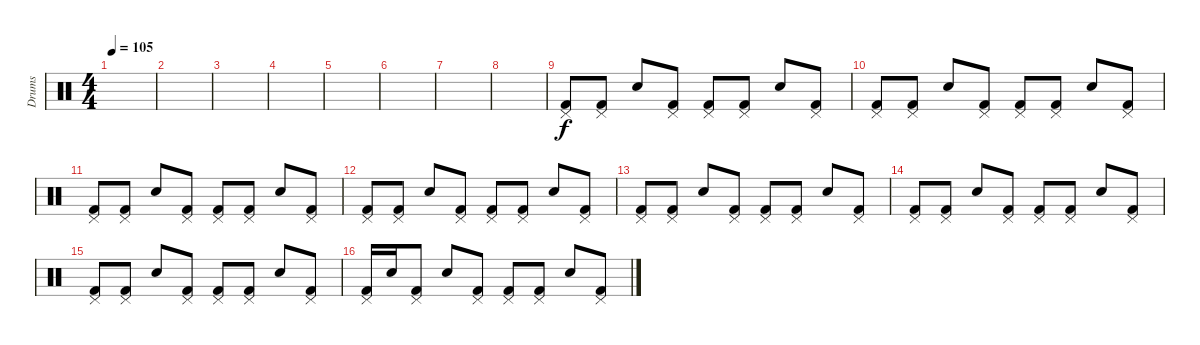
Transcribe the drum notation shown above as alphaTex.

\track ("Drums" "Drums") {instrument percussion}
\staff {score}
\articulation defaults
\ts (4 4)
\tempo 105
\clef neutral
\ks c
|
|
|
|
|
|
|
|
("Kick (hit) 2" "Pedal Hi-Hat (hit)").8{volume 2} ("Kick (hit) 2" "Pedal Hi-Hat (hit)").8 "Snare (hit) 2".8 ("Kick (hit) 2" "Pedal Hi-Hat (hit)").8 ("Kick (hit) 2" "Pedal Hi-Hat (hit)").8{volume 3} ("Kick (hit) 2" "Pedal Hi-Hat (hit)").8 "Snare (hit) 2".8 ("Kick (hit) 2" "Pedal Hi-Hat (hit)").8 |
("Kick (hit) 2" "Pedal Hi-Hat (hit)").8{volume 5} ("Kick (hit) 2" "Pedal Hi-Hat (hit)").8 "Snare (hit) 2".8 ("Kick (hit) 2" "Pedal Hi-Hat (hit)").8 ("Kick (hit) 2" "Pedal Hi-Hat (hit)").8{volume 7} ("Kick (hit) 2" "Pedal Hi-Hat (hit)").8 "Snare (hit) 2".8 ("Kick (hit) 2" "Pedal Hi-Hat (hit)").8 |
("Kick (hit) 2" "Pedal Hi-Hat (hit)").8{volume 9} ("Kick (hit) 2" "Pedal Hi-Hat (hit)").8 "Snare (hit) 2".8 ("Kick (hit) 2" "Pedal Hi-Hat (hit)").8 ("Kick (hit) 2" "Pedal Hi-Hat (hit)").8{volume 11} ("Kick (hit) 2" "Pedal Hi-Hat (hit)").8 "Snare (hit) 2".8 ("Kick (hit) 2" "Pedal Hi-Hat (hit)").8 |
("Kick (hit) 2" "Pedal Hi-Hat (hit)").8{volume 12} ("Kick (hit) 2" "Pedal Hi-Hat (hit)").8 "Snare (hit) 2".8 ("Kick (hit) 2" "Pedal Hi-Hat (hit)").8 ("Kick (hit) 2" "Pedal Hi-Hat (hit)").8 ("Kick (hit) 2" "Pedal Hi-Hat (hit)").8 "Snare (hit) 2".8 ("Kick (hit) 2" "Pedal Hi-Hat (hit)").8 |
("Kick (hit) 2" "Pedal Hi-Hat (hit)").8 ("Kick (hit) 2" "Pedal Hi-Hat (hit)").8 "Snare (hit) 2".8 ("Kick (hit) 2" "Pedal Hi-Hat (hit)").8 ("Kick (hit) 2" "Pedal Hi-Hat (hit)").8 ("Kick (hit) 2" "Pedal Hi-Hat (hit)").8 "Snare (hit) 2".8 ("Kick (hit) 2" "Pedal Hi-Hat (hit)").8 |
("Kick (hit) 2" "Pedal Hi-Hat (hit)").8 ("Kick (hit) 2" "Pedal Hi-Hat (hit)").8 "Snare (hit) 2".8 ("Kick (hit) 2" "Pedal Hi-Hat (hit)").8 ("Kick (hit) 2" "Pedal Hi-Hat (hit)").8 ("Kick (hit) 2" "Pedal Hi-Hat (hit)").8 "Snare (hit) 2".8 ("Kick (hit) 2" "Pedal Hi-Hat (hit)").8 |
("Kick (hit) 2" "Pedal Hi-Hat (hit)").8 ("Kick (hit) 2" "Pedal Hi-Hat (hit)").8 "Snare (hit) 2".8 ("Kick (hit) 2" "Pedal Hi-Hat (hit)").8 ("Kick (hit) 2" "Pedal Hi-Hat (hit)").8 ("Kick (hit) 2" "Pedal Hi-Hat (hit)").8 "Snare (hit) 2".8 ("Kick (hit) 2" "Pedal Hi-Hat (hit)").8 |
("Kick (hit) 2" "Pedal Hi-Hat (hit)").16 "Snare (hit) 2".16 ("Kick (hit) 2" "Pedal Hi-Hat (hit)").8 "Snare (hit) 2".8 ("Kick (hit) 2" "Pedal Hi-Hat (hit)").8 ("Kick (hit) 2" "Pedal Hi-Hat (hit)").8 ("Kick (hit) 2" "Pedal Hi-Hat (hit)").8 "Snare (hit) 2".8 ("Kick (hit) 2" "Pedal Hi-Hat (hit)").8
